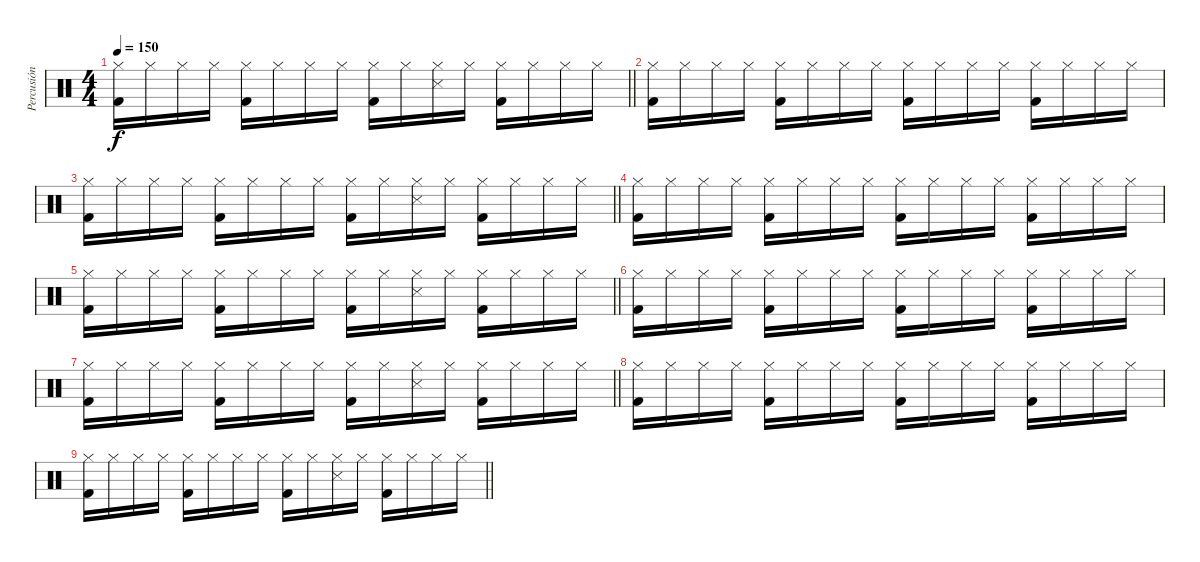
\track ("Percusión" "Percusión") {instrument percussion}
\staff {score}
\articulation defaults
\ts (4 4)
\tempo 150
\clef neutral
\barLineRight lightlight
\ks c
("Kick (hit) 2" "Hi-Hat (closed)").16{dy f} "Hi-Hat (closed)".16 "Hi-Hat (closed)".16 "Hi-Hat (closed)".16 ("Kick (hit) 2" "Hi-Hat (closed)").16 "Hi-Hat (closed)".16 "Hi-Hat (closed)".16 "Hi-Hat (closed)".16 ("Kick (hit) 2" "Hi-Hat (closed)").16 "Hi-Hat (closed)".16 ("Snare (side stick) 3" "Hi-Hat (closed)").16 "Hi-Hat (closed)".16 ("Kick (hit) 2" "Hi-Hat (closed)").16 "Hi-Hat (closed)".16 "Hi-Hat (closed)".16 "Hi-Hat (closed)".16 |
("Kick (hit) 2" "Hi-Hat (closed)").16 "Hi-Hat (closed)".16 "Hi-Hat (closed)".16 "Hi-Hat (closed)".16 ("Kick (hit) 2" "Hi-Hat (closed)").16 "Hi-Hat (closed)".16 "Hi-Hat (closed)".16 "Hi-Hat (closed)".16 ("Kick (hit) 2" "Hi-Hat (closed)").16 "Hi-Hat (closed)".16 "Hi-Hat (closed)".16 "Hi-Hat (closed)".16 ("Kick (hit) 2" "Hi-Hat (closed)").16 "Hi-Hat (closed)".16 "Hi-Hat (closed)".16 "Hi-Hat (closed)".16 |
\barLineRight lightlight
("Kick (hit) 2" "Hi-Hat (closed)").16 "Hi-Hat (closed)".16 "Hi-Hat (closed)".16 "Hi-Hat (closed)".16 ("Kick (hit) 2" "Hi-Hat (closed)").16 "Hi-Hat (closed)".16 "Hi-Hat (closed)".16 "Hi-Hat (closed)".16 ("Kick (hit) 2" "Hi-Hat (closed)").16 "Hi-Hat (closed)".16 ("Snare (side stick) 3" "Hi-Hat (closed)").16 "Hi-Hat (closed)".16 ("Kick (hit) 2" "Hi-Hat (closed)").16 "Hi-Hat (closed)".16 "Hi-Hat (closed)".16 "Hi-Hat (closed)".16 |
("Kick (hit) 2" "Hi-Hat (closed)").16 "Hi-Hat (closed)".16 "Hi-Hat (closed)".16 "Hi-Hat (closed)".16 ("Kick (hit) 2" "Hi-Hat (closed)").16 "Hi-Hat (closed)".16 "Hi-Hat (closed)".16 "Hi-Hat (closed)".16 ("Kick (hit) 2" "Hi-Hat (closed)").16 "Hi-Hat (closed)".16 "Hi-Hat (closed)".16 "Hi-Hat (closed)".16 ("Kick (hit) 2" "Hi-Hat (closed)").16 "Hi-Hat (closed)".16 "Hi-Hat (closed)".16 "Hi-Hat (closed)".16 |
\barLineRight lightlight
("Kick (hit) 2" "Hi-Hat (closed)").16 "Hi-Hat (closed)".16 "Hi-Hat (closed)".16 "Hi-Hat (closed)".16 ("Kick (hit) 2" "Hi-Hat (closed)").16 "Hi-Hat (closed)".16 "Hi-Hat (closed)".16 "Hi-Hat (closed)".16 ("Kick (hit) 2" "Hi-Hat (closed)").16 "Hi-Hat (closed)".16 ("Snare (side stick) 3" "Hi-Hat (closed)").16 "Hi-Hat (closed)".16 ("Kick (hit) 2" "Hi-Hat (closed)").16 "Hi-Hat (closed)".16 "Hi-Hat (closed)".16 "Hi-Hat (closed)".16 |
("Kick (hit) 2" "Hi-Hat (closed)").16 "Hi-Hat (closed)".16 "Hi-Hat (closed)".16 "Hi-Hat (closed)".16 ("Kick (hit) 2" "Hi-Hat (closed)").16 "Hi-Hat (closed)".16 "Hi-Hat (closed)".16 "Hi-Hat (closed)".16 ("Kick (hit) 2" "Hi-Hat (closed)").16 "Hi-Hat (closed)".16 "Hi-Hat (closed)".16 "Hi-Hat (closed)".16 ("Kick (hit) 2" "Hi-Hat (closed)").16 "Hi-Hat (closed)".16 "Hi-Hat (closed)".16 "Hi-Hat (closed)".16 |
\barLineRight lightlight
("Kick (hit) 2" "Hi-Hat (closed)").16 "Hi-Hat (closed)".16 "Hi-Hat (closed)".16 "Hi-Hat (closed)".16 ("Kick (hit) 2" "Hi-Hat (closed)").16 "Hi-Hat (closed)".16 "Hi-Hat (closed)".16 "Hi-Hat (closed)".16 ("Kick (hit) 2" "Hi-Hat (closed)").16 "Hi-Hat (closed)".16 ("Snare (side stick) 3" "Hi-Hat (closed)").16 "Hi-Hat (closed)".16 ("Kick (hit) 2" "Hi-Hat (closed)").16 "Hi-Hat (closed)".16 "Hi-Hat (closed)".16 "Hi-Hat (closed)".16 |
("Kick (hit) 2" "Hi-Hat (closed)").16 "Hi-Hat (closed)".16 "Hi-Hat (closed)".16 "Hi-Hat (closed)".16 ("Kick (hit) 2" "Hi-Hat (closed)").16 "Hi-Hat (closed)".16 "Hi-Hat (closed)".16 "Hi-Hat (closed)".16 ("Kick (hit) 2" "Hi-Hat (closed)").16 "Hi-Hat (closed)".16 "Hi-Hat (closed)".16 "Hi-Hat (closed)".16 ("Kick (hit) 2" "Hi-Hat (closed)").16 "Hi-Hat (closed)".16 "Hi-Hat (closed)".16 "Hi-Hat (closed)".16 |
\barLineRight lightlight
("Kick (hit) 2" "Hi-Hat (closed)").16 "Hi-Hat (closed)".16 "Hi-Hat (closed)".16 "Hi-Hat (closed)".16 ("Kick (hit) 2" "Hi-Hat (closed)").16 "Hi-Hat (closed)".16 "Hi-Hat (closed)".16 "Hi-Hat (closed)".16 ("Kick (hit) 2" "Hi-Hat (closed)").16 "Hi-Hat (closed)".16 ("Snare (side stick) 3" "Hi-Hat (closed)").16 "Hi-Hat (closed)".16 ("Kick (hit) 2" "Hi-Hat (closed)").16 "Hi-Hat (closed)".16 "Hi-Hat (closed)".16 "Hi-Hat (closed)".16
